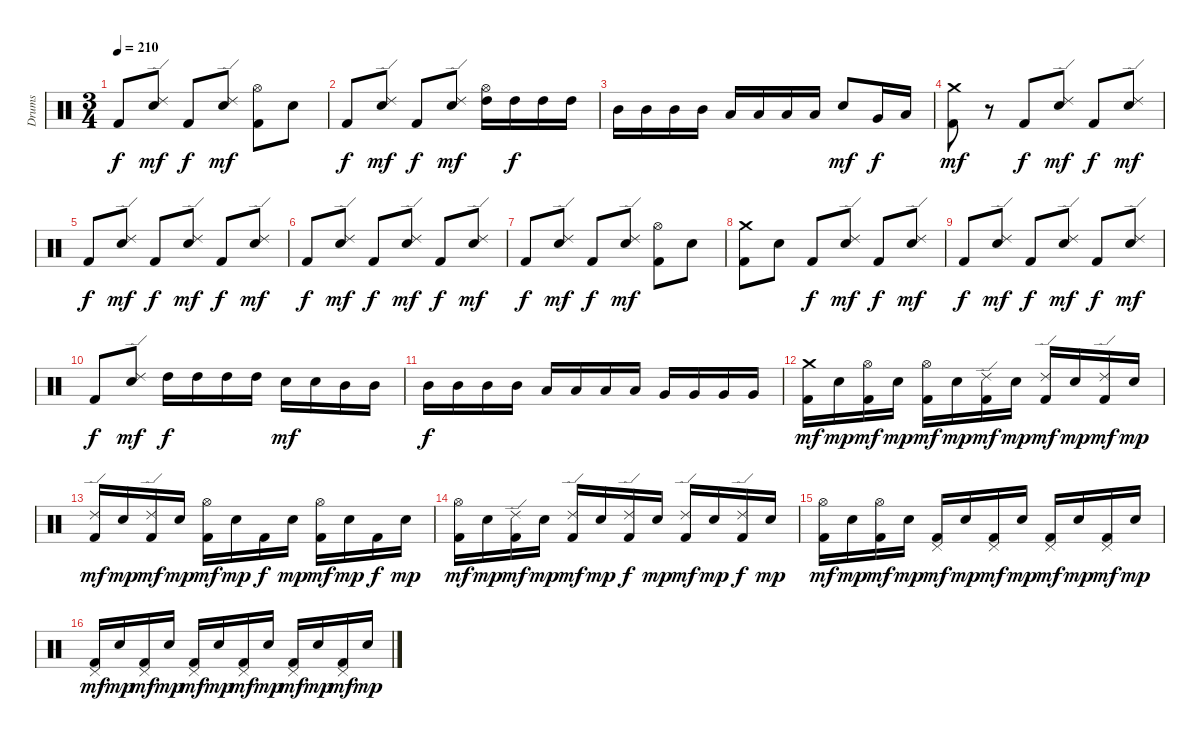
\track ("Drums" "Drums") {instrument percussion}
\staff {score}
\articulation defaults
\ts (3 4)
\tempo 210
\clef neutral
\ks c "Kick (hit) 2".8{dy f}
("Ride (edge) 2" "Electric Snare (hit)").8{dy mf} "Kick (hit) 2".8{dy f} ("Ride (edge) 2" "Electric Snare (hit)").8{dy mf} ("Hi-Hat (open)" "Kick (hit) 2").8 "Electric Snare (hit)".8 |
"Kick (hit) 2".8{dy f} ("Ride (edge) 2" "Electric Snare (hit)").8{dy mf} "Kick (hit) 2".8{dy f} ("Ride (edge) 2" "Electric Snare (hit)").8{dy mf} ("Hi-Hat (open)" "High Tom (hit)").16 "High Tom (hit)".16{dy f} "High Tom (hit)".16 "High Tom (hit)".16 |
"Mid Tom (hit)".16 "Mid Tom (hit)".16 "Mid Tom (hit)".16 "Mid Tom (hit)".16 "Low Tom (hit)".16 "Low Tom (hit)".16 "Low Tom (hit)".16 "Low Tom (hit)".16 "Electric Snare (hit)".8{dy mf} "Very Low Tom (hit)".16{dy f} "Low Tom (hit)".16 |
("Crash medium (hit)" "Kick (hit) 2").8{dy mf} r.8 "Kick (hit) 2".8{dy f} ("Ride (edge) 2" "Electric Snare (hit)").8{dy mf} "Kick (hit) 2".8{dy f} ("Ride (edge) 2" "Electric Snare (hit)").8{dy mf} |
"Kick (hit) 2".8{dy f} ("Ride (edge) 2" "Electric Snare (hit)").8{dy mf} "Kick (hit) 2".8{dy f} ("Ride (edge) 2" "Electric Snare (hit)").8{dy mf} "Kick (hit) 2".8{dy f} ("Ride (edge) 2" "Electric Snare (hit)").8{dy mf} |
"Kick (hit) 2".8{dy f} ("Ride (edge) 2" "Electric Snare (hit)").8{dy mf} "Kick (hit) 2".8{dy f} ("Ride (edge) 2" "Electric Snare (hit)").8{dy mf} "Kick (hit) 2".8{dy f} ("Ride (edge) 2" "Electric Snare (hit)").8{dy mf} |
"Kick (hit) 2".8{dy f} ("Ride (edge) 2" "Electric Snare (hit)").8{dy mf} "Kick (hit) 2".8{dy f} ("Ride (edge) 2" "Electric Snare (hit)").8{dy mf} ("Hi-Hat (open)" "Kick (hit) 2").8 "Electric Snare (hit)".8 |
("Crash medium (hit)" "Kick (hit) 2").8 "Electric Snare (hit)".8 "Kick (hit) 2".8{dy f} ("Ride (edge) 2" "Electric Snare (hit)").8{dy mf} "Kick (hit) 2".8{dy f} ("Ride (edge) 2" "Electric Snare (hit)").8{dy mf} |
"Kick (hit) 2".8{dy f} ("Ride (edge) 2" "Electric Snare (hit)").8{dy mf} "Kick (hit) 2".8{dy f} ("Ride (edge) 2" "Electric Snare (hit)").8{dy mf} "Kick (hit) 2".8{dy f} ("Ride (edge) 2" "Electric Snare (hit)").8{dy mf} |
"Kick (hit) 2".8{dy f} ("Ride (edge) 2" "Electric Snare (hit)").8{dy mf} "High Tom (hit)".16{dy f} "High Tom (hit)".16 "High Tom (hit)".16 "High Tom (hit)".16 "Electric Snare (hit)".16{dy mf} "Electric Snare (hit)".16 "Mid Tom (hit)".16 "Mid Tom (hit)".16 |
"Mid Tom (hit)".16{dy f} "Mid Tom (hit)".16 "Mid Tom (hit)".16 "Mid Tom (hit)".16 "Low Tom (hit)".16 "Low Tom (hit)".16 "Low Tom (hit)".16 "Low Tom (hit)".16 "Very Low Tom (hit)".16 "Very Low Tom (hit)".16 "Very Low Tom (hit)".16 "Very Low Tom (hit)".16 |
("Crash medium (hit)" "Kick (hit) 2").16{dy mf} "Electric Snare (hit)".16{dy mp} ("Hi-Hat (open)" "Kick (hit) 2").16{dy mf} "Electric Snare (hit)".16{dy mp} ("Hi-Hat (open)" "Kick (hit) 2").16{dy mf} "Electric Snare (hit)".16{dy mp} ("Ride (edge) 2" "Kick (hit) 2").16{dy mf} "Electric Snare (hit)".16{dy mp} ("Ride (edge) 2" "Kick (hit) 2").16{dy mf} "Electric Snare (hit)".16{dy mp} ("Ride (edge) 2" "Kick (hit) 2").16{dy mf} "Electric Snare (hit)".16{dy mp} |
("Ride (edge) 2" "Kick (hit) 2").16{dy mf} "Electric Snare (hit)".16{dy mp} ("Ride (edge) 2" "Kick (hit) 2").16{dy mf} "Electric Snare (hit)".16{dy mp} ("Hi-Hat (open)" "Kick (hit) 2").16{dy mf} "Electric Snare (hit)".16{dy mp} "Kick (hit) 2".16{dy f} "Electric Snare (hit)".16{dy mp} ("Hi-Hat (open)" "Kick (hit) 2").16{dy mf} "Electric Snare (hit)".16{dy mp} "Kick (hit) 2".16{dy f} "Electric Snare (hit)".16{dy mp} |
("Hi-Hat (open)" "Kick (hit) 2").16{dy mf} "Electric Snare (hit)".16{dy mp} ("Ride (edge) 2" "Kick (hit) 2").16{dy mf} "Electric Snare (hit)".16{dy mp} ("Ride (edge) 2" "Kick (hit) 2").16{dy mf} "Electric Snare (hit)".16{dy mp} ("Ride (edge) 2" "Kick (hit) 2").16{dy f} "Electric Snare (hit)".16{dy mp} ("Ride (edge) 2" "Kick (hit) 2").16{dy mf} "Electric Snare (hit)".16{dy mp} ("Ride (edge) 2" "Kick (hit) 2").16{dy f} "Electric Snare (hit)".16{dy mp} |
("Hi-Hat (open)" "Kick (hit) 2").16{dy mf} "Electric Snare (hit)".16{dy mp} ("Hi-Hat (open)" "Kick (hit) 2").16{dy mf} "Electric Snare (hit)".16{dy mp} ("Pedal Hi-Hat (hit)" "Kick (hit) 2").16{dy mf} "Electric Snare (hit)".16{dy mp} ("Pedal Hi-Hat (hit)" "Kick (hit) 2").16{dy mf} "Electric Snare (hit)".16{dy mp} ("Pedal Hi-Hat (hit)" "Kick (hit) 2").16{dy mf} "Electric Snare (hit)".16{dy mp} ("Pedal Hi-Hat (hit)" "Kick (hit) 2").16{dy mf} "Electric Snare (hit)".16{dy mp} |
("Pedal Hi-Hat (hit)" "Kick (hit) 2").16{dy mf} "Electric Snare (hit)".16{dy mp} ("Pedal Hi-Hat (hit)" "Kick (hit) 2").16{dy mf} "Electric Snare (hit)".16{dy mp} ("Pedal Hi-Hat (hit)" "Kick (hit) 2").16{dy mf} "Electric Snare (hit)".16{dy mp} ("Pedal Hi-Hat (hit)" "Kick (hit) 2").16{dy mf} "Electric Snare (hit)".16{dy mp} ("Pedal Hi-Hat (hit)" "Kick (hit) 2").16{dy mf} "Electric Snare (hit)".16{dy mp} ("Pedal Hi-Hat (hit)" "Kick (hit) 2").16{dy mf} "Electric Snare (hit)".16{dy mp}
